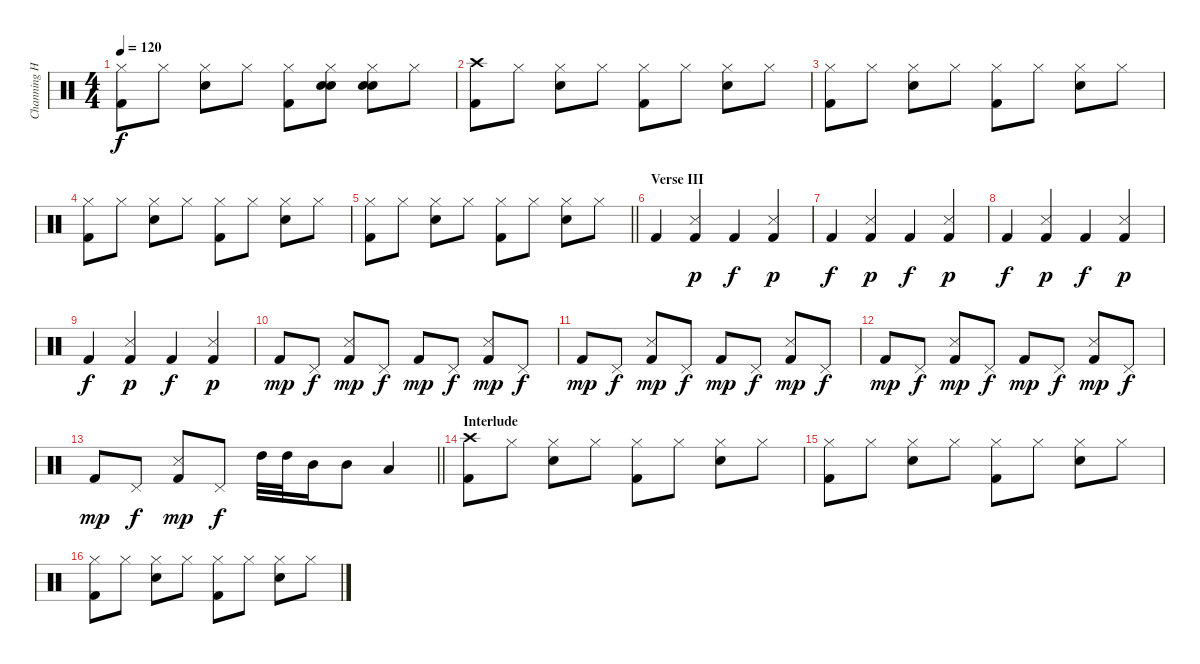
\track ("Channing Holmes' drums" "Channing H") {instrument percussion}
\staff {score}
\articulation defaults
\ts (4 4)
\tempo 120
\clef neutral
\ks c
("Hi-Hat (closed)" "Kick (hit) 2").8{dy f} "Hi-Hat (closed)".8 ("Hi-Hat (closed)" "Snare (hit) 2").8 "Hi-Hat (closed)".8 ("Hi-Hat (closed)" "Kick (hit) 2").8 ("Hand Clap (hit)" "Hi-Hat (closed)" "Snare (hit) 2").8 ("Hand Clap (hit)" "Hi-Hat (closed)" "Snare (hit) 2").8 "Hi-Hat (closed)".8 |
("Crash high (hit)" "Kick (hit) 2").8 "Hi-Hat (closed)".8 ("Hi-Hat (closed)" "Snare (hit) 2").8 "Hi-Hat (closed)".8 ("Hi-Hat (closed)" "Kick (hit) 2").8 "Hi-Hat (closed)".8 ("Hi-Hat (closed)" "Snare (hit) 2").8 "Hi-Hat (closed)".8 |
("Hi-Hat (closed)" "Kick (hit) 2").8 "Hi-Hat (closed)".8 ("Hi-Hat (closed)" "Snare (hit) 2").8 "Hi-Hat (closed)".8 ("Hi-Hat (closed)" "Kick (hit) 2").8 "Hi-Hat (closed)".8 ("Hi-Hat (closed)" "Snare (hit) 2").8 "Hi-Hat (closed)".8 |
("Hi-Hat (closed)" "Kick (hit) 2").8 "Hi-Hat (closed)".8 ("Hi-Hat (closed)" "Snare (hit) 2").8 "Hi-Hat (closed)".8 ("Hi-Hat (closed)" "Kick (hit) 2").8 "Hi-Hat (closed)".8 ("Hi-Hat (closed)" "Snare (hit) 2").8 "Hi-Hat (closed)".8 |
\barLineRight lightlight
("Hi-Hat (closed)" "Kick (hit) 2").8 "Hi-Hat (closed)".8 ("Hi-Hat (closed)" "Snare (hit) 2").8 "Hi-Hat (closed)".8 ("Hi-Hat (closed)" "Kick (hit) 2").8 "Hi-Hat (closed)".8 ("Hi-Hat (closed)" "Snare (hit) 2").8 "Hi-Hat (closed)".8 |
\section ("" "Verse III")
"Kick (hit) 2".4 ("Snare (side stick) 3" "Kick (hit) 2").4{dy p} "Kick (hit) 2".4{dy f} ("Snare (side stick) 3" "Kick (hit) 2").4{dy p} |
"Kick (hit) 2".4{dy f} ("Snare (side stick) 3" "Kick (hit) 2").4{dy p} "Kick (hit) 2".4{dy f} ("Snare (side stick) 3" "Kick (hit) 2").4{dy p} |
"Kick (hit) 2".4{dy f} ("Snare (side stick) 3" "Kick (hit) 2").4{dy p} "Kick (hit) 2".4{dy f} ("Snare (side stick) 3" "Kick (hit) 2").4{dy p} |
"Kick (hit) 2".4{dy f} ("Snare (side stick) 3" "Kick (hit) 2").4{dy p} "Kick (hit) 2".4{dy f} ("Snare (side stick) 3" "Kick (hit) 2").4{dy p} |
"Kick (hit) 2".8{dy mp} "Pedal Hi-Hat (hit)".8{dy f} ("Snare (side stick) 3" "Kick (hit) 2").8{dy mp} "Pedal Hi-Hat (hit)".8{dy f} "Kick (hit) 2".8{dy mp} "Pedal Hi-Hat (hit)".8{dy f} ("Snare (side stick) 3" "Kick (hit) 2").8{dy mp} "Pedal Hi-Hat (hit)".8{dy f} |
"Kick (hit) 2".8{dy mp} "Pedal Hi-Hat (hit)".8{dy f} ("Snare (side stick) 3" "Kick (hit) 2").8{dy mp} "Pedal Hi-Hat (hit)".8{dy f} "Kick (hit) 2".8{dy mp} "Pedal Hi-Hat (hit)".8{dy f} ("Snare (side stick) 3" "Kick (hit) 2").8{dy mp} "Pedal Hi-Hat (hit)".8{dy f} |
"Kick (hit) 2".8{dy mp} "Pedal Hi-Hat (hit)".8{dy f} ("Snare (side stick) 3" "Kick (hit) 2").8{dy mp} "Pedal Hi-Hat (hit)".8{dy f} "Kick (hit) 2".8{dy mp} "Pedal Hi-Hat (hit)".8{dy f} ("Snare (side stick) 3" "Kick (hit) 2").8{dy mp} "Pedal Hi-Hat (hit)".8{dy f} |
\barLineRight lightlight "Kick (hit) 2".8{dy mp} "Pedal Hi-Hat (hit)".8{dy f}
("Snare (side stick) 3" "Kick (hit) 2").8{dy mp} "Pedal Hi-Hat (hit)".8{dy f} "High Tom (hit)".32 "High Tom (hit)".32 "Mid Tom (hit)".16 "Mid Tom (hit)".8 "Low Tom (hit)".4 |
\section ("" "Interlude")
("Crash high (hit)" "Kick (hit) 2").8 "Hi-Hat (closed)".8 ("Hi-Hat (closed)" "Snare (hit) 2").8 "Hi-Hat (closed)".8 ("Hi-Hat (closed)" "Kick (hit) 2").8 "Hi-Hat (closed)".8 ("Hi-Hat (closed)" "Snare (hit) 2").8 "Hi-Hat (closed)".8 |
("Hi-Hat (closed)" "Kick (hit) 2").8 "Hi-Hat (closed)".8 ("Hi-Hat (closed)" "Snare (hit) 2").8 "Hi-Hat (closed)".8 ("Hi-Hat (closed)" "Kick (hit) 2").8 "Hi-Hat (closed)".8 ("Hi-Hat (closed)" "Snare (hit) 2").8 "Hi-Hat (closed)".8 |
("Hi-Hat (closed)" "Kick (hit) 2").8 "Hi-Hat (closed)".8 ("Hi-Hat (closed)" "Snare (hit) 2").8 "Hi-Hat (closed)".8 ("Hi-Hat (closed)" "Kick (hit) 2").8 "Hi-Hat (closed)".8 ("Hi-Hat (closed)" "Snare (hit) 2").8 "Hi-Hat (closed)".8
